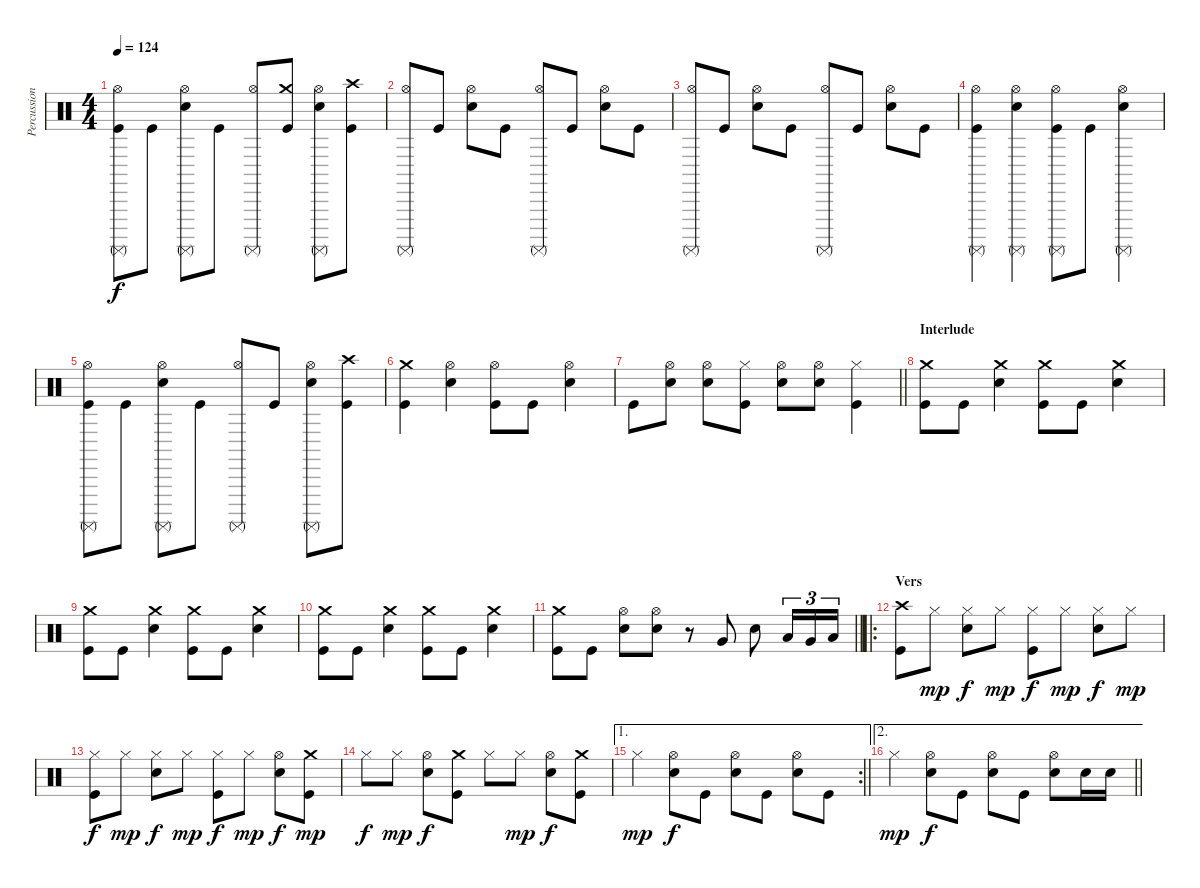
\track ("Percussion" "Percussion") {instrument percussion}
\staff {score}
\articulation defaults
\ts (4 4)
\tempo 124
\clef neutral
\ks c
("Hi-Hat (open)" "Surdo (mute)" "Kick (hit)").8{dy f} "Kick (hit)".8 ("Hi-Hat (open)" "Snare (hit) 2" "Surdo (mute)").8 "Kick (hit)".8 ("Hi-Hat (open)" "Surdo (mute)").8 ("Crash medium (hit)" "Kick (hit)").8 ("Hi-Hat (open)" "Snare (hit) 2" "Surdo (mute)").8 ("Crash high (hit)" "Kick (hit)").8 |
("Hi-Hat (open)" "Surdo (mute)").8 "Kick (hit)".8 ("Hi-Hat (open)" "Snare (hit) 2").8 "Kick (hit)".8 ("Hi-Hat (open)" "Surdo (mute)").8 "Kick (hit)".8 ("Hi-Hat (open)" "Snare (hit) 2").8 "Kick (hit)".8 |
("Hi-Hat (open)" "Surdo (mute)").8 "Kick (hit)".8 ("Hi-Hat (open)" "Snare (hit) 2").8 "Kick (hit)".8 ("Hi-Hat (open)" "Surdo (mute)").8 "Kick (hit)".8 ("Hi-Hat (open)" "Snare (hit) 2").8 "Kick (hit)".8 |
("Hi-Hat (open)" "Surdo (mute)" "Kick (hit)").4 ("Hi-Hat (open)" "Snare (hit) 2" "Surdo (mute)").4 ("Hi-Hat (open)" "Surdo (mute)" "Kick (hit)").8 "Kick (hit)".8 ("Hi-Hat (open)" "Snare (hit) 2" "Surdo (mute)").4 |
("Hi-Hat (open)" "Surdo (mute)" "Kick (hit)").8 "Kick (hit)".8 ("Hi-Hat (open)" "Snare (hit) 2" "Surdo (mute)").8 "Kick (hit)".8 ("Hi-Hat (open)" "Surdo (mute)").8 "Kick (hit)".8 ("Hi-Hat (open)" "Snare (hit) 2" "Surdo (mute)").8 ("Crash high (hit)" "Kick (hit)").8 |
("Crash medium (hit)" "Kick (hit)").4 ("Hi-Hat (open)" "Snare (hit) 2").4 ("Hi-Hat (open)" "Kick (hit)").8 "Kick (hit)".8 ("Hi-Hat (open)" "Snare (hit) 2").4 |
\barLineRight lightlight "Kick (hit)".8
("Hi-Hat (open)" "Snare (hit) 2").8 ("Hi-Hat (open)" "Snare (hit) 2").8 ("Hi-Hat (closed)" "Kick (hit)").8 ("Hi-Hat (open)" "Snare (hit) 2").8 ("Hi-Hat (open)" "Snare (hit) 2").8 ("Hi-Hat (closed)" "Kick (hit)").4 |
\section ("" "Interlude")
("Crash medium (hit)" "Kick (hit)").8 "Kick (hit)".8 ("Crash medium (hit)" "Snare (hit) 2").4 ("Crash medium (hit)" "Kick (hit)").8 "Kick (hit)".8 ("Crash medium (hit)" "Snare (hit) 2").4 |
("Crash medium (hit)" "Kick (hit)").8 "Kick (hit)".8 ("Crash medium (hit)" "Snare (hit) 2").4 ("Crash medium (hit)" "Kick (hit)").8 "Kick (hit)".8 ("Crash medium (hit)" "Snare (hit) 2").4 |
("Crash medium (hit)" "Kick (hit)").8 "Kick (hit)".8 ("Crash medium (hit)" "Snare (hit) 2").4 ("Crash medium (hit)" "Kick (hit)").8 "Kick (hit)".8 ("Crash medium (hit)" "Snare (hit) 2").4 |
\barLineRight lightlight
("Crash medium (hit)" "Kick (hit)").8 "Kick (hit)".8 ("Hi-Hat (open)" "Snare (hit) 2").8 ("Hi-Hat (open)" "Snare (hit) 2").8 r.8 "Very Low Tom (hit)".8 "Snare (hit) 2".8 "Low Tom (hit)".16{tu (3 2)} "Very Low Tom (hit)".16{tu (3 2)} "Low Floor Tom (hit)".16{tu (3 2)} |
\ro
\section ("" "Vers")
("Crash high (hit)" "Kick (hit)").8 "Hi-Hat (closed)".8{dy mp} ("Hi-Hat (closed)" "Snare (hit) 2").8{dy f} "Hi-Hat (closed)".8{dy mp} ("Hi-Hat (closed)" "Kick (hit)").8{dy f} "Hi-Hat (closed)".8{dy mp} ("Hi-Hat (closed)" "Snare (hit) 2").8{dy f} "Hi-Hat (closed)".8{dy mp} |
("Hi-Hat (closed)" "Kick (hit)").8{dy f} "Hi-Hat (closed)".8{dy mp} ("Hi-Hat (closed)" "Snare (hit) 2").8{dy f} "Hi-Hat (closed)".8{dy mp} ("Hi-Hat (closed)" "Kick (hit)").8{dy f} "Hi-Hat (closed)".8{dy mp} ("Hi-Hat (open)" "Snare (hit) 2").8{dy f} ("Crash medium (hit)" "Kick (hit)").8{dy mp} |
"Hi-Hat (closed)".8{dy f} "Hi-Hat (closed)".8{dy mp} ("Hi-Hat (open)" "Snare (hit) 2").8{dy f} ("Crash medium (hit)" "Kick (hit)").8 "Hi-Hat (closed)".8 "Hi-Hat (closed)".8{dy mp} ("Hi-Hat (open)" "Snare (hit) 2").8{dy f} ("Crash medium (hit)" "Kick (hit)").8 |
\ae 1
\rc 2
\barLineRight lightlight "Hi-Hat (closed)".4{dy mp}
("Hi-Hat (open)" "Snare (hit) 2").8{dy f} "Kick (hit)".8 ("Hi-Hat (open)" "Snare (hit) 2").8 "Kick (hit)".8 ("Hi-Hat (open)" "Snare (hit) 2").8 "Kick (hit)".8 |
\ae 2
\barLineRight lightlight "Hi-Hat (closed)".4{dy mp}
("Hi-Hat (open)" "Snare (hit) 2").8{dy f} "Kick (hit)".8 ("Hi-Hat (open)" "Snare (hit) 2").8 "Kick (hit)".8 ("Hi-Hat (open)" "Snare (hit) 2").8 "Snare (hit) 2".16 "Snare (hit) 2".16
